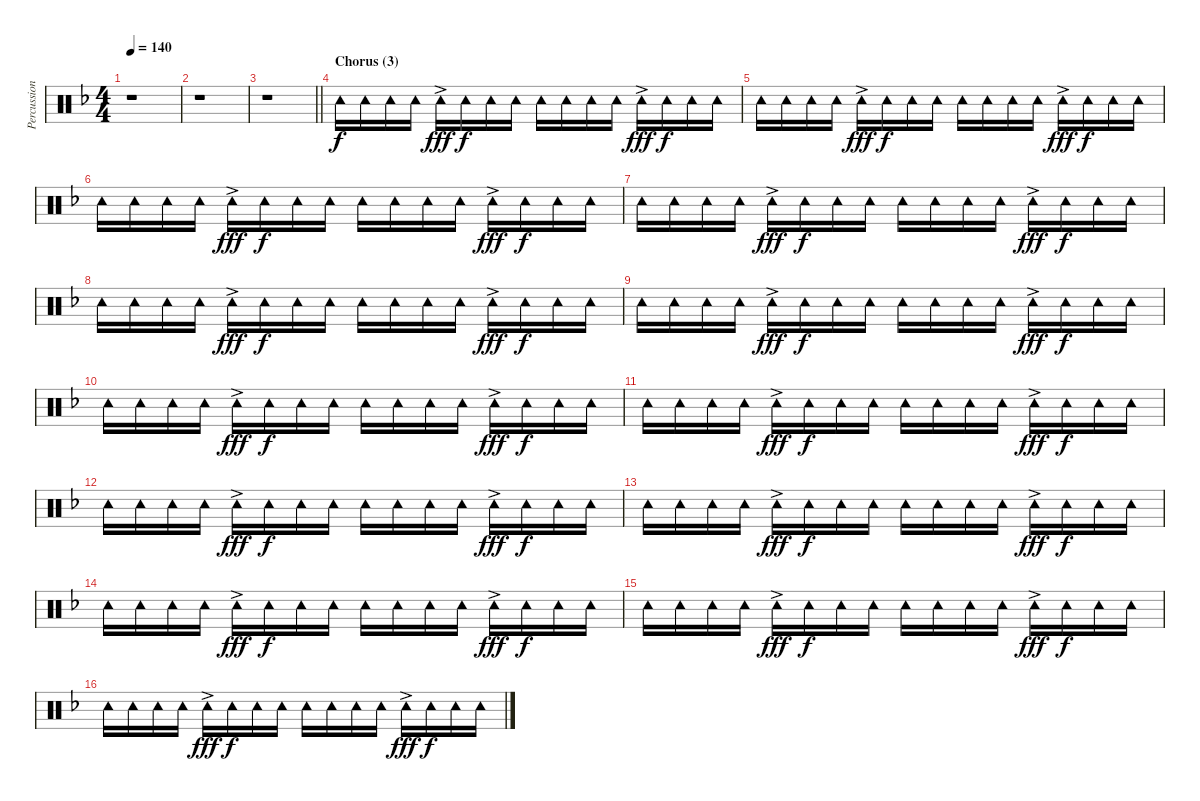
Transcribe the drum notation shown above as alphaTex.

\track ("Percussion" "Percussion") {instrument percussion}
\staff {score}
\articulation defaults
\ts (4 4)
\tempo 140
\clef neutral
\ks f
r.1{dy f} |
r.1 |
\barLineRight lightlight
r.1 |
\section ("" "Chorus (3)")
"Tambourine (hit)".16 "Tambourine (hit)".16 "Tambourine (hit)".16 "Tambourine (hit)".16 "Tambourine (hit)"{ac}.16{dy fff} "Tambourine (hit)".16{dy f} "Tambourine (hit)".16 "Tambourine (hit)".16 "Tambourine (hit)".16 "Tambourine (hit)".16 "Tambourine (hit)".16 "Tambourine (hit)".16 "Tambourine (hit)"{ac}.16{dy fff} "Tambourine (hit)".16{dy f} "Tambourine (hit)".16 "Tambourine (hit)".16 |
"Tambourine (hit)".16 "Tambourine (hit)".16 "Tambourine (hit)".16 "Tambourine (hit)".16 "Tambourine (hit)"{ac}.16{dy fff} "Tambourine (hit)".16{dy f} "Tambourine (hit)".16 "Tambourine (hit)".16 "Tambourine (hit)".16 "Tambourine (hit)".16 "Tambourine (hit)".16 "Tambourine (hit)".16 "Tambourine (hit)"{ac}.16{dy fff} "Tambourine (hit)".16{dy f} "Tambourine (hit)".16 "Tambourine (hit)".16 |
"Tambourine (hit)".16 "Tambourine (hit)".16 "Tambourine (hit)".16 "Tambourine (hit)".16 "Tambourine (hit)"{ac}.16{dy fff} "Tambourine (hit)".16{dy f} "Tambourine (hit)".16 "Tambourine (hit)".16 "Tambourine (hit)".16 "Tambourine (hit)".16 "Tambourine (hit)".16 "Tambourine (hit)".16 "Tambourine (hit)"{ac}.16{dy fff} "Tambourine (hit)".16{dy f} "Tambourine (hit)".16 "Tambourine (hit)".16 |
"Tambourine (hit)".16 "Tambourine (hit)".16 "Tambourine (hit)".16 "Tambourine (hit)".16 "Tambourine (hit)"{ac}.16{dy fff} "Tambourine (hit)".16{dy f} "Tambourine (hit)".16 "Tambourine (hit)".16 "Tambourine (hit)".16 "Tambourine (hit)".16 "Tambourine (hit)".16 "Tambourine (hit)".16 "Tambourine (hit)"{ac}.16{dy fff} "Tambourine (hit)".16{dy f} "Tambourine (hit)".16 "Tambourine (hit)".16 |
"Tambourine (hit)".16 "Tambourine (hit)".16 "Tambourine (hit)".16 "Tambourine (hit)".16 "Tambourine (hit)"{ac}.16{dy fff} "Tambourine (hit)".16{dy f} "Tambourine (hit)".16 "Tambourine (hit)".16 "Tambourine (hit)".16 "Tambourine (hit)".16 "Tambourine (hit)".16 "Tambourine (hit)".16 "Tambourine (hit)"{ac}.16{dy fff} "Tambourine (hit)".16{dy f} "Tambourine (hit)".16 "Tambourine (hit)".16 |
"Tambourine (hit)".16 "Tambourine (hit)".16 "Tambourine (hit)".16 "Tambourine (hit)".16 "Tambourine (hit)"{ac}.16{dy fff} "Tambourine (hit)".16{dy f} "Tambourine (hit)".16 "Tambourine (hit)".16 "Tambourine (hit)".16 "Tambourine (hit)".16 "Tambourine (hit)".16 "Tambourine (hit)".16 "Tambourine (hit)"{ac}.16{dy fff} "Tambourine (hit)".16{dy f} "Tambourine (hit)".16 "Tambourine (hit)".16 |
"Tambourine (hit)".16 "Tambourine (hit)".16 "Tambourine (hit)".16 "Tambourine (hit)".16 "Tambourine (hit)"{ac}.16{dy fff} "Tambourine (hit)".16{dy f} "Tambourine (hit)".16 "Tambourine (hit)".16 "Tambourine (hit)".16 "Tambourine (hit)".16 "Tambourine (hit)".16 "Tambourine (hit)".16 "Tambourine (hit)"{ac}.16{dy fff} "Tambourine (hit)".16{dy f} "Tambourine (hit)".16 "Tambourine (hit)".16 |
"Tambourine (hit)".16 "Tambourine (hit)".16 "Tambourine (hit)".16 "Tambourine (hit)".16 "Tambourine (hit)"{ac}.16{dy fff} "Tambourine (hit)".16{dy f} "Tambourine (hit)".16 "Tambourine (hit)".16 "Tambourine (hit)".16 "Tambourine (hit)".16 "Tambourine (hit)".16 "Tambourine (hit)".16 "Tambourine (hit)"{ac}.16{dy fff} "Tambourine (hit)".16{dy f} "Tambourine (hit)".16 "Tambourine (hit)".16 |
"Tambourine (hit)".16 "Tambourine (hit)".16 "Tambourine (hit)".16 "Tambourine (hit)".16 "Tambourine (hit)"{ac}.16{dy fff} "Tambourine (hit)".16{dy f} "Tambourine (hit)".16 "Tambourine (hit)".16 "Tambourine (hit)".16 "Tambourine (hit)".16 "Tambourine (hit)".16 "Tambourine (hit)".16 "Tambourine (hit)"{ac}.16{dy fff} "Tambourine (hit)".16{dy f} "Tambourine (hit)".16 "Tambourine (hit)".16 |
"Tambourine (hit)".16 "Tambourine (hit)".16 "Tambourine (hit)".16 "Tambourine (hit)".16 "Tambourine (hit)"{ac}.16{dy fff} "Tambourine (hit)".16{dy f} "Tambourine (hit)".16 "Tambourine (hit)".16 "Tambourine (hit)".16 "Tambourine (hit)".16 "Tambourine (hit)".16 "Tambourine (hit)".16 "Tambourine (hit)"{ac}.16{dy fff} "Tambourine (hit)".16{dy f} "Tambourine (hit)".16 "Tambourine (hit)".16 |
"Tambourine (hit)".16 "Tambourine (hit)".16 "Tambourine (hit)".16 "Tambourine (hit)".16 "Tambourine (hit)"{ac}.16{dy fff} "Tambourine (hit)".16{dy f} "Tambourine (hit)".16 "Tambourine (hit)".16 "Tambourine (hit)".16 "Tambourine (hit)".16 "Tambourine (hit)".16 "Tambourine (hit)".16 "Tambourine (hit)"{ac}.16{dy fff} "Tambourine (hit)".16{dy f} "Tambourine (hit)".16 "Tambourine (hit)".16 |
"Tambourine (hit)".16 "Tambourine (hit)".16 "Tambourine (hit)".16 "Tambourine (hit)".16 "Tambourine (hit)"{ac}.16{dy fff} "Tambourine (hit)".16{dy f} "Tambourine (hit)".16 "Tambourine (hit)".16 "Tambourine (hit)".16 "Tambourine (hit)".16 "Tambourine (hit)".16 "Tambourine (hit)".16 "Tambourine (hit)"{ac}.16{dy fff} "Tambourine (hit)".16{dy f} "Tambourine (hit)".16 "Tambourine (hit)".16 |
"Tambourine (hit)".16 "Tambourine (hit)".16 "Tambourine (hit)".16 "Tambourine (hit)".16 "Tambourine (hit)"{ac}.16{dy fff} "Tambourine (hit)".16{dy f} "Tambourine (hit)".16 "Tambourine (hit)".16 "Tambourine (hit)".16 "Tambourine (hit)".16 "Tambourine (hit)".16 "Tambourine (hit)".16 "Tambourine (hit)"{ac}.16{dy fff} "Tambourine (hit)".16{dy f} "Tambourine (hit)".16 "Tambourine (hit)".16
